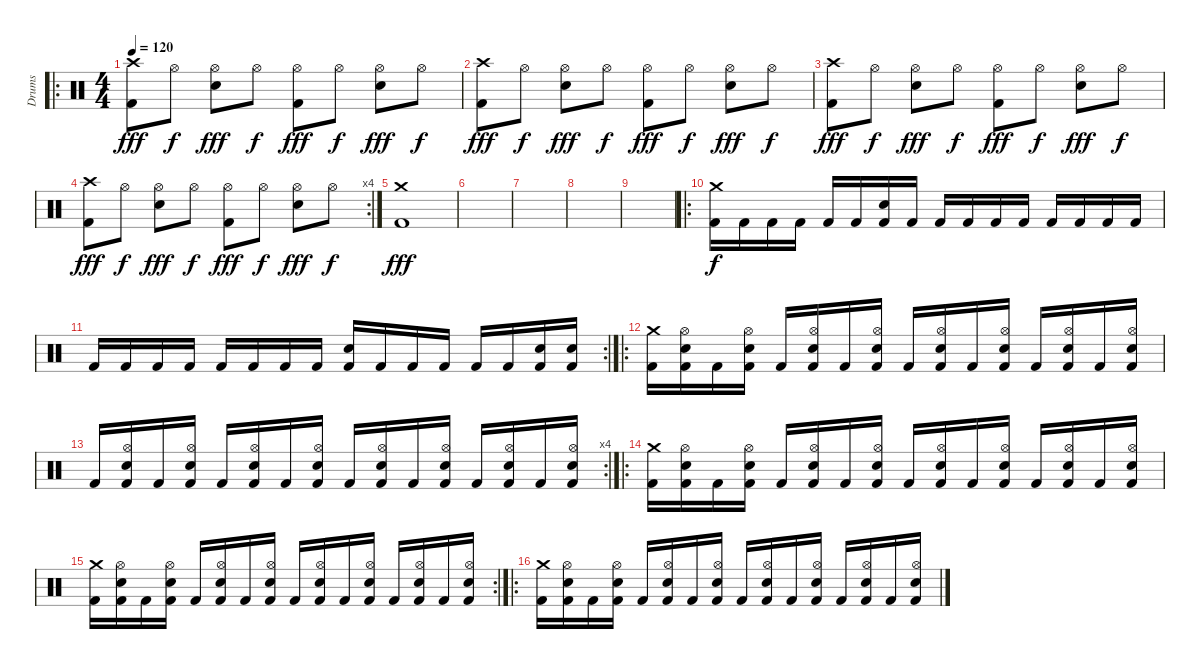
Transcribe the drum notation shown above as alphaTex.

\track ("Drums" "Drums") {instrument percussion}
\staff {score}
\articulation defaults
\ro
\ts (4 4)
\tempo 120
\clef neutral
\ks c
("Crash high (hit)" "Kick (hit) 2").8{dy fff} "Hi-Hat (open)".8{dy f} ("Hi-Hat (open)" "Electric Snare (hit)").8{dy fff} "Hi-Hat (open)".8{dy f} ("Hi-Hat (open)" "Kick (hit) 2").8{dy fff} "Hi-Hat (open)".8{dy f} ("Hi-Hat (open)" "Electric Snare (hit)").8{dy fff} "Hi-Hat (open)".8{dy f} |
("Crash high (hit)" "Kick (hit) 2").8{dy fff} "Hi-Hat (open)".8{dy f} ("Hi-Hat (open)" "Electric Snare (hit)").8{dy fff} "Hi-Hat (open)".8{dy f} ("Hi-Hat (open)" "Kick (hit) 2").8{dy fff} "Hi-Hat (open)".8{dy f} ("Hi-Hat (open)" "Electric Snare (hit)").8{dy fff} "Hi-Hat (open)".8{dy f} |
("Crash high (hit)" "Kick (hit) 2").8{dy fff} "Hi-Hat (open)".8{dy f} ("Hi-Hat (open)" "Electric Snare (hit)").8{dy fff} "Hi-Hat (open)".8{dy f} ("Hi-Hat (open)" "Kick (hit) 2").8{dy fff} "Hi-Hat (open)".8{dy f} ("Hi-Hat (open)" "Electric Snare (hit)").8{dy fff} "Hi-Hat (open)".8{dy f} |
\rc 4
("Crash high (hit)" "Kick (hit) 2").8{dy fff} "Hi-Hat (open)".8{dy f} ("Hi-Hat (open)" "Electric Snare (hit)").8{dy fff} "Hi-Hat (open)".8{dy f} ("Hi-Hat (open)" "Kick (hit) 2").8{dy fff} "Hi-Hat (open)".8{dy f} ("Hi-Hat (open)" "Electric Snare (hit)").8{dy fff} "Hi-Hat (open)".8{dy f} |
("Crash medium (hit)" "Kick (hit) 2").1{dy fff} |
|
|
|
|
\ro
("Crash medium (hit)" "Kick (hit) 2").16{dy f} "Kick (hit) 2".16 "Kick (hit) 2".16 "Kick (hit) 2".16 "Kick (hit) 2".16 "Kick (hit) 2".16 ("Electric Snare (hit)" "Kick (hit) 2").16 "Kick (hit) 2".16 "Kick (hit) 2".16 "Kick (hit) 2".16 "Kick (hit) 2".16 "Kick (hit) 2".16 "Kick (hit) 2".16 "Kick (hit) 2".16 "Kick (hit) 2".16 "Kick (hit) 2".16 |
\rc 2 "Kick (hit) 2".16 "Kick (hit) 2".16 "Kick (hit) 2".16 "Kick (hit) 2".16 "Kick (hit) 2".16 "Kick (hit) 2".16 "Kick (hit) 2".16 "Kick (hit) 2".16
("Electric Snare (hit)" "Kick (hit) 2").16 "Kick (hit) 2".16 "Kick (hit) 2".16 "Kick (hit) 2".16 "Kick (hit) 2".16 "Kick (hit) 2".16 ("Electric Snare (hit)" "Kick (hit) 2").16 ("Electric Snare (hit)" "Kick (hit) 2").16 |
\ro
("Crash medium (hit)" "Kick (hit) 2").16 ("Hi-Hat (open)" "Electric Snare (hit)" "Kick (hit) 2").16 "Kick (hit) 2".16 ("Hi-Hat (open)" "Electric Snare (hit)" "Kick (hit) 2").16 "Kick (hit) 2".16 ("Hi-Hat (open)" "Electric Snare (hit)" "Kick (hit) 2").16 "Kick (hit) 2".16 ("Hi-Hat (open)" "Electric Snare (hit)" "Kick (hit) 2").16 "Kick (hit) 2".16 ("Hi-Hat (open)" "Electric Snare (hit)" "Kick (hit) 2").16 "Kick (hit) 2".16 ("Hi-Hat (open)" "Electric Snare (hit)" "Kick (hit) 2").16 "Kick (hit) 2".16 ("Hi-Hat (open)" "Electric Snare (hit)" "Kick (hit) 2").16 "Kick (hit) 2".16 ("Hi-Hat (open)" "Electric Snare (hit)" "Kick (hit) 2").16 |
\rc 4 "Kick (hit) 2".16
("Hi-Hat (open)" "Electric Snare (hit)" "Kick (hit) 2").16 "Kick (hit) 2".16 ("Hi-Hat (open)" "Electric Snare (hit)" "Kick (hit) 2").16 "Kick (hit) 2".16 ("Hi-Hat (open)" "Electric Snare (hit)" "Kick (hit) 2").16 "Kick (hit) 2".16 ("Hi-Hat (open)" "Electric Snare (hit)" "Kick (hit) 2").16 "Kick (hit) 2".16 ("Hi-Hat (open)" "Electric Snare (hit)" "Kick (hit) 2").16 "Kick (hit) 2".16 ("Hi-Hat (open)" "Electric Snare (hit)" "Kick (hit) 2").16 "Kick (hit) 2".16 ("Hi-Hat (open)" "Electric Snare (hit)" "Kick (hit) 2").16 "Kick (hit) 2".16 ("Hi-Hat (open)" "Electric Snare (hit)" "Kick (hit) 2").16 |
\ro
("Crash medium (hit)" "Kick (hit) 2").16 ("Hi-Hat (open)" "Electric Snare (hit)" "Kick (hit) 2").16 "Kick (hit) 2".16 ("Hi-Hat (open)" "Electric Snare (hit)" "Kick (hit) 2").16 "Kick (hit) 2".16 ("Hi-Hat (open)" "Electric Snare (hit)" "Kick (hit) 2").16 "Kick (hit) 2".16 ("Hi-Hat (open)" "Electric Snare (hit)" "Kick (hit) 2").16 "Kick (hit) 2".16 ("Hi-Hat (open)" "Electric Snare (hit)" "Kick (hit) 2").16 "Kick (hit) 2".16 ("Hi-Hat (open)" "Electric Snare (hit)" "Kick (hit) 2").16 "Kick (hit) 2".16 ("Hi-Hat (open)" "Electric Snare (hit)" "Kick (hit) 2").16 "Kick (hit) 2".16 ("Hi-Hat (open)" "Electric Snare (hit)" "Kick (hit) 2").16 |
\rc 2
("Crash medium (hit)" "Kick (hit) 2").16 ("Hi-Hat (open)" "Electric Snare (hit)" "Kick (hit) 2").16 "Kick (hit) 2".16 ("Hi-Hat (open)" "Electric Snare (hit)" "Kick (hit) 2").16 "Kick (hit) 2".16 ("Hi-Hat (open)" "Electric Snare (hit)" "Kick (hit) 2").16 "Kick (hit) 2".16 ("Hi-Hat (open)" "Electric Snare (hit)" "Kick (hit) 2").16 "Kick (hit) 2".16 ("Hi-Hat (open)" "Electric Snare (hit)" "Kick (hit) 2").16 "Kick (hit) 2".16 ("Hi-Hat (open)" "Electric Snare (hit)" "Kick (hit) 2").16 "Kick (hit) 2".16 ("Hi-Hat (open)" "Electric Snare (hit)" "Kick (hit) 2").16 "Kick (hit) 2".16 ("Hi-Hat (open)" "Electric Snare (hit)" "Kick (hit) 2").16 |
\ro
("Crash medium (hit)" "Kick (hit) 2").16 ("Hi-Hat (open)" "Electric Snare (hit)" "Kick (hit) 2").16 "Kick (hit) 2".16 ("Hi-Hat (open)" "Electric Snare (hit)" "Kick (hit) 2").16 "Kick (hit) 2".16 ("Hi-Hat (open)" "Electric Snare (hit)" "Kick (hit) 2").16 "Kick (hit) 2".16 ("Hi-Hat (open)" "Electric Snare (hit)" "Kick (hit) 2").16 "Kick (hit) 2".16 ("Hi-Hat (open)" "Electric Snare (hit)" "Kick (hit) 2").16 "Kick (hit) 2".16 ("Hi-Hat (open)" "Electric Snare (hit)" "Kick (hit) 2").16 "Kick (hit) 2".16 ("Hi-Hat (open)" "Electric Snare (hit)" "Kick (hit) 2").16 "Kick (hit) 2".16 ("Hi-Hat (open)" "Electric Snare (hit)" "Kick (hit) 2").16
